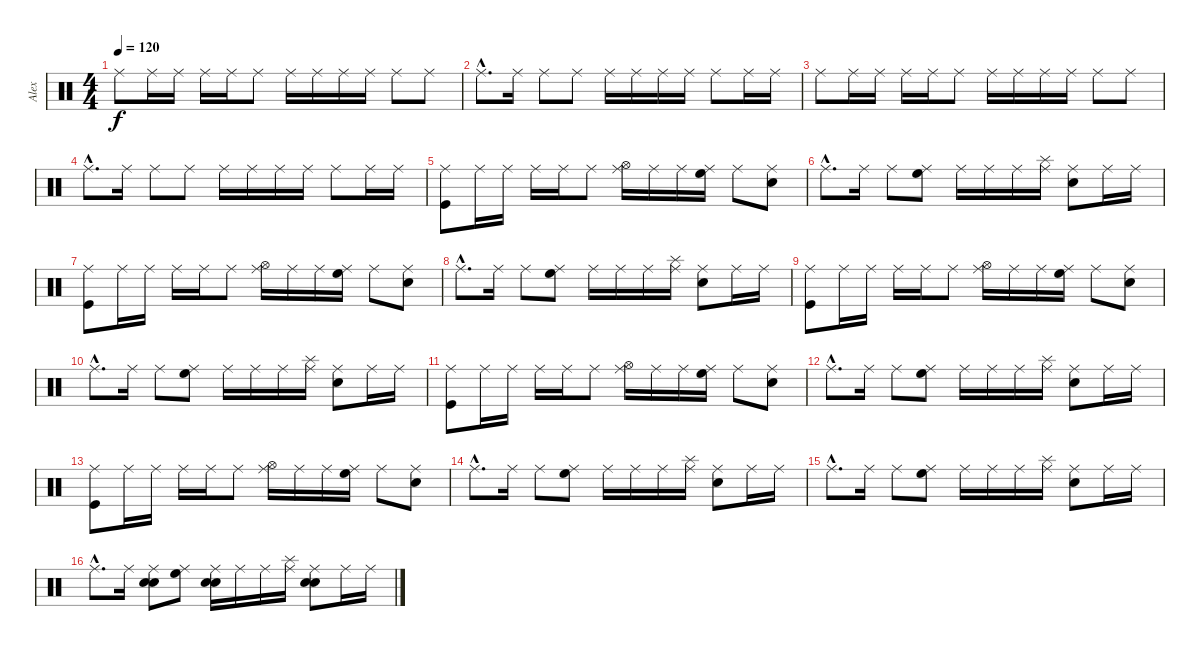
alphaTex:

\track ("Alex" "Alex") {instrument percussion}
\staff {score}
\articulation defaults
\ts (4 4)
\tempo 120
\clef neutral
\ks c "Ride (middle)".8{dy f volume 16} "Ride (middle)".16{volume 8} "Ride (middle)".16{volume 8} "Ride (middle)".16{volume 6} "Ride (middle)".16{volume 7} "Ride (middle)".8{volume 16} "Ride (middle)".16{volume 7} "Ride (middle)".16{volume 7} "Ride (middle)".16{volume 8} "Ride (middle)".16{volume 5} "Ride (middle)".8{volume 16} "Ride (middle)".8{volume 16}
|
"Ride (middle)"{hac}.8{d volume 16} "Ride (middle)".16{volume 8} "Ride (middle)".8{volume 16} "Ride (middle)".8{volume 8} "Ride (middle)".16{volume 16} "Ride (middle)".16{volume 5} "Ride (middle)".16{volume 5} "Ride (middle)".16{volume 7} "Ride (middle)".8{volume 7} "Ride (middle)".16{volume 5} "Ride (middle)".16{volume 16} |
"Ride (middle)".8{volume 16} "Ride (middle)".16{volume 8} "Ride (middle)".16{volume 8} "Ride (middle)".16{volume 6} "Ride (middle)".16{volume 7} "Ride (middle)".8{volume 16} "Ride (middle)".16{volume 7} "Ride (middle)".16{volume 7} "Ride (middle)".16{volume 8} "Ride (middle)".16{volume 5} "Ride (middle)".8{volume 16} "Ride (middle)".8{volume 16} |
"Ride (middle)"{hac}.8{d volume 16} "Ride (middle)".16{volume 8} "Ride (middle)".8{volume 16} "Ride (middle)".8{volume 8} "Ride (middle)".16{volume 16} "Ride (middle)".16{volume 5} "Ride (middle)".16{volume 5} "Ride (middle)".16{volume 7} "Ride (middle)".8{volume 7} "Ride (middle)".16{volume 5} "Ride (middle)".16{volume 16} |
("Ride (middle)" "Kick (hit)").8{volume 16} "Ride (middle)".16{volume 8} "Ride (middle)".16{volume 8} "Ride (middle)".16{volume 6} "Ride (middle)".16{volume 7} "Ride (middle)".8{volume 16} ("Ride (middle)" "Hi-Hat (open)").16{volume 7} "Ride (middle)".16{volume 7} "Ride (middle)".16{volume 8} ("Ride (middle)" "High Floor Tom (hit)").16{volume 5} "Ride (middle)".8{volume 16} ("Ride (middle)" "Electric Snare (hit)").8{volume 16} |
"Ride (middle)"{hac}.8{d volume 16} "Ride (middle)".16{volume 8} "Ride (middle)".8{volume 16} ("Ride (middle)" "High Floor Tom (hit)").8{volume 8} "Ride (middle)".16{volume 16} "Ride (middle)".16{volume 5} "Ride (middle)".16{volume 5} ("Ride (middle)" "Splash (hit)").16{volume 7} ("Ride (middle)" "Electric Snare (hit)").8{volume 16} "Ride (middle)".16{volume 5} "Ride (middle)".16{volume 16} |
("Ride (middle)" "Kick (hit)").8{volume 16} "Ride (middle)".16{volume 8} "Ride (middle)".16{volume 8} "Ride (middle)".16{volume 6} "Ride (middle)".16{volume 7} "Ride (middle)".8{volume 16} ("Ride (middle)" "Hi-Hat (open)").16{volume 7} "Ride (middle)".16{volume 7} "Ride (middle)".16{volume 8} ("Ride (middle)" "High Floor Tom (hit)").16{volume 5} "Ride (middle)".8{volume 16} ("Ride (middle)" "Electric Snare (hit)").8{volume 16} |
"Ride (middle)"{hac}.8{d volume 16} "Ride (middle)".16{volume 8} "Ride (middle)".8{volume 16} ("Ride (middle)" "High Floor Tom (hit)").8{volume 8} "Ride (middle)".16{volume 16} "Ride (middle)".16{volume 5} "Ride (middle)".16{volume 5} ("Ride (middle)" "Splash (hit)").16{volume 7} ("Ride (middle)" "Electric Snare (hit)").8{volume 16} "Ride (middle)".16{volume 5} "Ride (middle)".16{volume 16} |
("Ride (middle)" "Kick (hit)").8{volume 16} "Ride (middle)".16{volume 8} "Ride (middle)".16{volume 8} "Ride (middle)".16{volume 6} "Ride (middle)".16{volume 7} "Ride (middle)".8{volume 16} ("Ride (middle)" "Hi-Hat (open)").16{volume 7} "Ride (middle)".16{volume 7} "Ride (middle)".16{volume 8} ("Ride (middle)" "High Floor Tom (hit)").16{volume 5} "Ride (middle)".8{volume 16} ("Ride (middle)" "Electric Snare (hit)").8{volume 16} |
"Ride (middle)"{hac}.8{d volume 16} "Ride (middle)".16{volume 8} "Ride (middle)".8{volume 16} ("Ride (middle)" "High Floor Tom (hit)").8{volume 8} "Ride (middle)".16{volume 16} "Ride (middle)".16{volume 5} "Ride (middle)".16{volume 5} ("Ride (middle)" "Splash (hit)").16{volume 7} ("Ride (middle)" "Electric Snare (hit)").8{volume 16} "Ride (middle)".16{volume 5} "Ride (middle)".16{volume 16} |
("Ride (middle)" "Kick (hit)").8{volume 16} "Ride (middle)".16{volume 8} "Ride (middle)".16{volume 8} "Ride (middle)".16{volume 6} "Ride (middle)".16{volume 7} "Ride (middle)".8{volume 16} ("Ride (middle)" "Hi-Hat (open)").16{volume 7} "Ride (middle)".16{volume 7} "Ride (middle)".16{volume 8} ("Ride (middle)" "High Floor Tom (hit)").16{volume 5} "Ride (middle)".8{volume 16} ("Ride (middle)" "Electric Snare (hit)").8{volume 16} |
"Ride (middle)"{hac}.8{d volume 16} "Ride (middle)".16{volume 8} "Ride (middle)".8{volume 16} ("Ride (middle)" "High Floor Tom (hit)").8{volume 8} "Ride (middle)".16{volume 16} "Ride (middle)".16{volume 5} "Ride (middle)".16{volume 5} ("Ride (middle)" "Splash (hit)").16{volume 7} ("Ride (middle)" "Electric Snare (hit)").8{volume 16} "Ride (middle)".16{volume 5} "Ride (middle)".16{volume 16} |
("Ride (middle)" "Kick (hit)").8{volume 16} "Ride (middle)".16{volume 8} "Ride (middle)".16{volume 8} "Ride (middle)".16{volume 6} "Ride (middle)".16{volume 7} "Ride (middle)".8{volume 16} ("Ride (middle)" "Hi-Hat (open)").16{volume 7} "Ride (middle)".16{volume 7} "Ride (middle)".16{volume 8} ("Ride (middle)" "High Floor Tom (hit)").16{volume 5} "Ride (middle)".8{volume 16} ("Ride (middle)" "Electric Snare (hit)").8{volume 16} |
"Ride (middle)"{hac}.8{d volume 16} "Ride (middle)".16{volume 8} "Ride (middle)".8{volume 16} ("Ride (middle)" "High Floor Tom (hit)").8{volume 8} "Ride (middle)".16{volume 16} "Ride (middle)".16{volume 5} "Ride (middle)".16{volume 5} ("Ride (middle)" "Splash (hit)").16{volume 7} ("Ride (middle)" "Electric Snare (hit)").8{volume 16} "Ride (middle)".16{volume 5} "Ride (middle)".16{volume 16} |
"Ride (middle)"{hac}.8{d volume 16} "Ride (middle)".16{volume 8} "Ride (middle)".8{volume 16} ("Ride (middle)" "High Floor Tom (hit)").8{volume 8} "Ride (middle)".16{volume 16} "Ride (middle)".16{volume 5} "Ride (middle)".16{volume 5} ("Ride (middle)" "Splash (hit)").16{volume 7} ("Ride (middle)" "Electric Snare (hit)").8{volume 16} "Ride (middle)".16{volume 5} "Ride (middle)".16{volume 16} |
"Ride (middle)"{hac}.8{d volume 16} "Ride (middle)".16{volume 8} ("Ride (middle)" "Electric Snare (hit)" "Electric Snare (hit)").8{volume 16} ("Ride (middle)" "High Floor Tom (hit)").8{volume 8} ("Ride (middle)" "Electric Snare (hit)" "Electric Snare (hit)").16{volume 16} "Ride (middle)".16{volume 5} "Ride (middle)".16{volume 5} ("Ride (middle)" "Splash (hit)").16{volume 7} ("Ride (middle)" "Electric Snare (hit)" "Electric Snare (hit)").8{volume 16} "Ride (middle)".16{volume 5} "Ride (middle)".16{volume 16}
